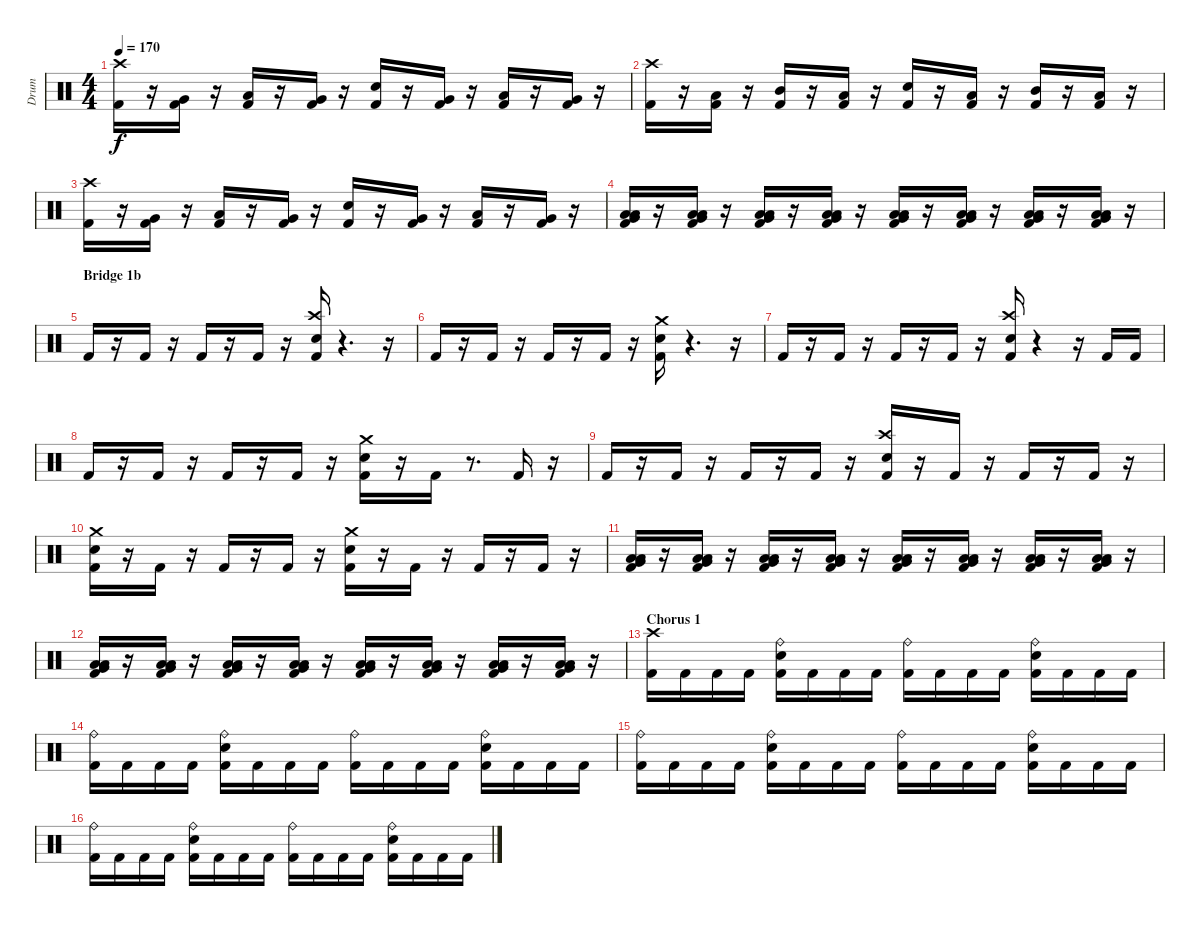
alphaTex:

\track ("Drum" "Drum") {instrument percussion}
\staff {score}
\articulation defaults
\ts (4 4)
\tempo 170
\clef neutral
\ks c
("Kick (hit) 2" "Crash high (hit)").16{dy f} r.16 ("Kick (hit) 2" "Very Low Tom (hit)").16 r.16 ("Kick (hit) 2" "Low Tom (hit)").16 r.16 ("Kick (hit) 2" "Very Low Tom (hit)").16 r.16 ("Kick (hit) 2" "Electric Snare (hit)").16 r.16 ("Kick (hit) 2" "Very Low Tom (hit)").16 r.16 ("Kick (hit) 2" "Low Tom (hit)").16 r.16 ("Kick (hit) 2" "Very Low Tom (hit)").16 r.16 |
("Kick (hit) 2" "Crash high (hit)").16 r.16 ("Kick (hit) 2" "Low Tom (hit)").16 r.16 ("Kick (hit) 2" "Mid Tom (hit)").16 r.16 ("Kick (hit) 2" "Low Tom (hit)").16 r.16 ("Electric Snare (hit)" "Kick (hit) 2").16 r.16 ("Kick (hit) 2" "Low Tom (hit)").16 r.16 ("Kick (hit) 2" "Mid Tom (hit)").16 r.16 ("Kick (hit) 2" "Low Tom (hit)").16 r.16 |
("Kick (hit) 2" "Crash high (hit)").16 r.16 ("Kick (hit) 2" "Very Low Tom (hit)").16 r.16 ("Kick (hit) 2" "Low Tom (hit)").16 r.16 ("Kick (hit) 2" "Very Low Tom (hit)").16 r.16 ("Electric Snare (hit)" "Kick (hit) 2").16 r.16 ("Kick (hit) 2" "Very Low Tom (hit)").16 r.16 ("Kick (hit) 2" "Low Tom (hit)").16 r.16 ("Kick (hit) 2" "Very Low Tom (hit)").16 r.16 |
("Kick (hit) 2" "Very Low Tom (hit)" "Low Floor Tom (hit)" "Low Tom (hit)").16 r.16 ("Kick (hit) 2" "Low Floor Tom (hit)" "Very Low Tom (hit)" "Low Tom (hit)").16 r.16 ("Kick (hit) 2" "Low Floor Tom (hit)" "Low Tom (hit)" "Very Low Tom (hit)").16 r.16 ("Kick (hit) 2" "Very Low Tom (hit)" "Low Tom (hit)" "Low Floor Tom (hit)").16 r.16 ("Kick (hit) 2" "Low Tom (hit)" "Low Floor Tom (hit)" "Very Low Tom (hit)").16 r.16 ("Kick (hit) 2" "Low Tom (hit)" "Low Floor Tom (hit)" "Very Low Tom (hit)").16 r.16 ("Kick (hit) 2" "Low Floor Tom (hit)" "Low Tom (hit)" "Very Low Tom (hit)").16 r.16 ("Kick (hit) 2" "Low Tom (hit)" "Low Floor Tom (hit)" "Very Low Tom (hit)").16 r.16 |
\section ("" "Bridge 1b")
"Kick (hit) 2".16 r.16 "Kick (hit) 2".16 r.16 "Kick (hit) 2".16 r.16 "Kick (hit) 2".16 r.16 ("Kick (hit) 2" "Electric Snare (hit)" "Crash high (hit)").16 r.4{d} r.16 |
"Kick (hit) 2".16 r.16 "Kick (hit) 2".16 r.16 "Kick (hit) 2".16 r.16 "Kick (hit) 2".16 r.16 ("Electric Snare (hit)" "Kick (hit) 2" "Crash medium (hit)").16 r.4{d} r.16 |
"Kick (hit) 2".16 r.16 "Kick (hit) 2".16 r.16 "Kick (hit) 2".16 r.16 "Kick (hit) 2".16 r.16 ("Electric Snare (hit)" "Kick (hit) 2" "Crash high (hit)").16 r.4 r.16 "Kick (hit) 2".16 "Kick (hit) 2".16 |
"Kick (hit) 2".16 r.16 "Kick (hit) 2".16 r.16 "Kick (hit) 2".16 r.16 "Kick (hit) 2".16 r.16 ("Electric Snare (hit)" "Kick (hit) 2" "Crash medium (hit)").16 r.16 "Kick (hit) 2".16 r.8{d} "Kick (hit) 2".16 r.16 |
"Kick (hit) 2".16 r.16 "Kick (hit) 2".16 r.16 "Kick (hit) 2".16 r.16 "Kick (hit) 2".16 r.16 ("Kick (hit) 2" "Electric Snare (hit)" "Crash high (hit)").16 r.16 "Kick (hit) 2".16 r.16 "Kick (hit) 2".16 r.16 "Kick (hit) 2".16 r.16 |
("Kick (hit) 2" "Electric Snare (hit)" "Crash medium (hit)").16 r.16 "Kick (hit) 2".16 r.16 "Kick (hit) 2".16 r.16 "Kick (hit) 2".16 r.16 ("Kick (hit) 2" "Electric Snare (hit)" "Crash medium (hit)").16 r.16 "Kick (hit) 2".16 r.16 "Kick (hit) 2".16 r.16 "Kick (hit) 2".16 r.16 |
("Kick (hit) 2" "Low Floor Tom (hit)" "Low Tom (hit)" "Very Low Tom (hit)").16 r.16 ("Kick (hit) 2" "Low Tom (hit)" "Low Floor Tom (hit)" "Very Low Tom (hit)").16 r.16 ("Kick (hit) 2" "Very Low Tom (hit)" "Low Floor Tom (hit)" "Low Tom (hit)").16 r.16 ("Kick (hit) 2" "Low Tom (hit)" "Low Floor Tom (hit)" "Very Low Tom (hit)").16 r.16 ("Kick (hit) 2" "Low Floor Tom (hit)" "Very Low Tom (hit)" "Low Tom (hit)").16 r.16 ("Kick (hit) 2" "Low Tom (hit)" "Low Floor Tom (hit)" "Very Low Tom (hit)").16 r.16 ("Kick (hit) 2" "Low Floor Tom (hit)" "Low Tom (hit)" "Very Low Tom (hit)").16 r.16 ("Kick (hit) 2" "Low Floor Tom (hit)" "Very Low Tom (hit)" "Low Tom (hit)").16 r.16 |
("Kick (hit) 2" "Low Floor Tom (hit)" "Very Low Tom (hit)" "Low Tom (hit)").16 r.16 ("Kick (hit) 2" "Very Low Tom (hit)" "Low Floor Tom (hit)" "Low Tom (hit)").16 r.16 ("Kick (hit) 2" "Low Tom (hit)" "Very Low Tom (hit)" "Low Floor Tom (hit)").16 r.16 ("Kick (hit) 2" "Low Tom (hit)" "Very Low Tom (hit)" "Low Floor Tom (hit)").16 r.16 ("Kick (hit) 2" "Low Tom (hit)" "Very Low Tom (hit)" "Low Floor Tom (hit)").16 r.16 ("Kick (hit) 2" "Low Tom (hit)" "Low Floor Tom (hit)" "Very Low Tom (hit)").16 r.16 ("Kick (hit) 2" "Low Tom (hit)" "Very Low Tom (hit)" "Low Floor Tom (hit)").16 r.16 ("Kick (hit) 2" "Low Floor Tom (hit)" "Low Tom (hit)" "Very Low Tom (hit)").16 r.16 |
\section ("" "Chorus 1")
("Kick (hit) 2" "Crash high (hit)").16 "Kick (hit) 2".16 "Kick (hit) 2".16 "Kick (hit) 2".16 ("Kick (hit) 2" "Electric Snare (hit)" "Ride (bell)").16 "Kick (hit) 2".16 "Kick (hit) 2".16 "Kick (hit) 2".16 ("Kick (hit) 2" "Ride (bell)").16 "Kick (hit) 2".16 "Kick (hit) 2".16 "Kick (hit) 2".16 ("Electric Snare (hit)" "Kick (hit) 2" "Ride (bell)").16 "Kick (hit) 2".16 "Kick (hit) 2".16 "Kick (hit) 2".16 |
("Kick (hit) 2" "Ride (bell)").16 "Kick (hit) 2".16 "Kick (hit) 2".16 "Kick (hit) 2".16 ("Kick (hit) 2" "Electric Snare (hit)" "Ride (bell)").16 "Kick (hit) 2".16 "Kick (hit) 2".16 "Kick (hit) 2".16 ("Kick (hit) 2" "Ride (bell)").16 "Kick (hit) 2".16 "Kick (hit) 2".16 "Kick (hit) 2".16 ("Electric Snare (hit)" "Kick (hit) 2" "Ride (bell)").16 "Kick (hit) 2".16 "Kick (hit) 2".16 "Kick (hit) 2".16 |
("Kick (hit) 2" "Ride (bell)").16 "Kick (hit) 2".16 "Kick (hit) 2".16 "Kick (hit) 2".16 ("Kick (hit) 2" "Electric Snare (hit)" "Ride (bell)").16 "Kick (hit) 2".16 "Kick (hit) 2".16 "Kick (hit) 2".16 ("Kick (hit) 2" "Ride (bell)").16 "Kick (hit) 2".16 "Kick (hit) 2".16 "Kick (hit) 2".16 ("Electric Snare (hit)" "Kick (hit) 2" "Ride (bell)").16 "Kick (hit) 2".16 "Kick (hit) 2".16 "Kick (hit) 2".16 |
("Kick (hit) 2" "Ride (bell)").16 "Kick (hit) 2".16 "Kick (hit) 2".16 "Kick (hit) 2".16 ("Electric Snare (hit)" "Kick (hit) 2" "Ride (bell)").16 "Kick (hit) 2".16 "Kick (hit) 2".16 "Kick (hit) 2".16 ("Kick (hit) 2" "Ride (bell)").16 "Kick (hit) 2".16 "Kick (hit) 2".16 "Kick (hit) 2".16 ("Kick (hit) 2" "Electric Snare (hit)" "Ride (bell)").16 "Kick (hit) 2".16 "Kick (hit) 2".16 "Kick (hit) 2".16
